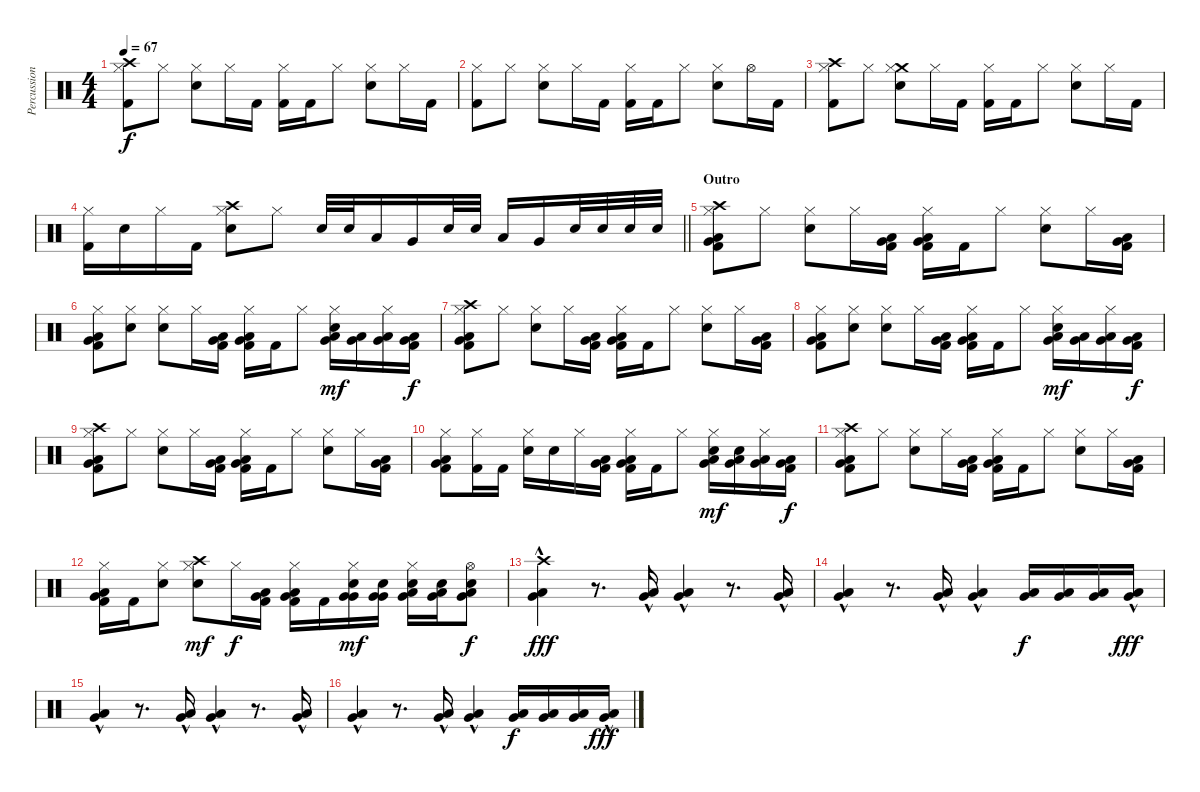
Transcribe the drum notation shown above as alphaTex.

\track ("Percussion" "Percussion") {instrument percussion}
\staff {score}
\articulation defaults
\ts (4 4)
\tempo 67
\clef neutral
\ks c
("Crash high (hit)" "Hi-Hat (closed)" "Kick (hit) 2").8{dy f} "Hi-Hat (closed)".8 ("Hi-Hat (closed)" "Snare (hit) 2").8 "Hi-Hat (closed)".16 "Kick (hit) 2".16 ("Hi-Hat (closed)" "Kick (hit) 2").16 "Kick (hit) 2".16 "Hi-Hat (closed)".8 ("Hi-Hat (closed)" "Snare (hit) 2").8 "Hi-Hat (closed)".16 "Kick (hit) 2".16 |
("Hi-Hat (closed)" "Kick (hit) 2").8 "Hi-Hat (closed)".8 ("Hi-Hat (closed)" "Snare (hit) 2").8 "Hi-Hat (closed)".16 "Kick (hit) 2".16 ("Hi-Hat (closed)" "Kick (hit) 2").16 "Kick (hit) 2".16 "Hi-Hat (closed)".8 ("Hi-Hat (closed)" "Snare (hit) 2").8 "Hi-Hat (open)".16 "Kick (hit) 2".16 |
("Crash high (hit)" "Hi-Hat (closed)" "Kick (hit) 2").8 "Hi-Hat (closed)".8 ("Crash medium (hit)" "Hi-Hat (closed)" "Snare (hit) 2").8 "Hi-Hat (closed)".16 "Kick (hit) 2".16 ("Hi-Hat (closed)" "Kick (hit) 2").16 "Kick (hit) 2".16 "Hi-Hat (closed)".8 ("Hi-Hat (closed)" "Snare (hit) 2").8 "Hi-Hat (closed)".16 "Kick (hit) 2".16 |
\barLineRight lightlight
("Hi-Hat (closed)" "Kick (hit) 2").16 "Snare (hit) 2".16 "Hi-Hat (closed)".16 "Kick (hit) 2".16 ("Crash high (hit)" "Hi-Hat (closed)" "Snare (hit) 2").8 "Hi-Hat (closed)".8 "Snare (hit) 2".32 "Snare (hit) 2".32 "Low Tom (hit)".16 "Very Low Tom (hit)".16 "Snare (hit) 2".32 "Snare (hit) 2".32 "Low Tom (hit)".16 "Very Low Tom (hit)".16 "Snare (hit) 2".32 "Snare (hit) 2".32 "Snare (hit) 2".32 "Snare (hit) 2".32 |
\section ("" "Outro")
("Crash high (hit)" "Hi-Hat (closed)" "Very Low Tom (hit)" "Low Floor Tom (hit)" "Kick (hit) 2").8 "Hi-Hat (closed)".8 ("Hi-Hat (closed)" "Snare (hit) 2").8 "Hi-Hat (closed)".16 ("Very Low Tom (hit)" "Low Floor Tom (hit)" "Kick (hit) 2").16 ("Hi-Hat (closed)" "Very Low Tom (hit)" "Low Floor Tom (hit)" "Kick (hit) 2").16 "Kick (hit) 2".16 "Hi-Hat (closed)".8 ("Hi-Hat (closed)" "Snare (hit) 2").8 "Hi-Hat (closed)".16 ("Very Low Tom (hit)" "Low Floor Tom (hit)" "Kick (hit) 2").16 |
("Hi-Hat (closed)" "Very Low Tom (hit)" "Low Floor Tom (hit)" "Kick (hit) 2").8 ("Hi-Hat (closed)" "Snare (hit) 2").8 ("Hi-Hat (closed)" "Snare (hit) 2").8 "Hi-Hat (closed)".16 ("Very Low Tom (hit)" "Low Floor Tom (hit)" "Kick (hit) 2").16 ("Hi-Hat (closed)" "Very Low Tom (hit)" "Low Floor Tom (hit)" "Kick (hit) 2").16 "Kick (hit) 2".16 "Hi-Hat (closed)".8 ("Hi-Hat (closed)" "Very Low Tom (hit)" "Low Floor Tom (hit)" "Snare (hit) 2").16{dy mf} ("Very Low Tom (hit)" "Low Floor Tom (hit)").16 ("Hi-Hat (closed)" "Very Low Tom (hit)" "Low Floor Tom (hit)").16 ("Very Low Tom (hit)" "Low Floor Tom (hit)" "Kick (hit) 2").16{dy f} |
("Crash high (hit)" "Hi-Hat (closed)" "Very Low Tom (hit)" "Low Floor Tom (hit)" "Kick (hit) 2").8 "Hi-Hat (closed)".8 ("Hi-Hat (closed)" "Snare (hit) 2").8 "Hi-Hat (closed)".16 ("Very Low Tom (hit)" "Low Floor Tom (hit)" "Kick (hit) 2").16 ("Hi-Hat (closed)" "Very Low Tom (hit)" "Low Floor Tom (hit)" "Kick (hit) 2").16 "Kick (hit) 2".16 "Hi-Hat (closed)".8 ("Hi-Hat (closed)" "Snare (hit) 2").8 "Hi-Hat (closed)".16 ("Very Low Tom (hit)" "Low Floor Tom (hit)" "Kick (hit) 2").16 |
("Hi-Hat (closed)" "Very Low Tom (hit)" "Low Floor Tom (hit)" "Kick (hit) 2").8 ("Hi-Hat (closed)" "Snare (hit) 2").8 ("Hi-Hat (closed)" "Snare (hit) 2").8 "Hi-Hat (closed)".16 ("Very Low Tom (hit)" "Low Floor Tom (hit)" "Kick (hit) 2").16 ("Hi-Hat (closed)" "Very Low Tom (hit)" "Low Floor Tom (hit)" "Kick (hit) 2").16 "Kick (hit) 2".16 "Hi-Hat (closed)".8 ("Hi-Hat (closed)" "Very Low Tom (hit)" "Low Floor Tom (hit)" "Snare (hit) 2").16{dy mf} ("Very Low Tom (hit)" "Low Floor Tom (hit)").16 ("Hi-Hat (closed)" "Very Low Tom (hit)" "Low Floor Tom (hit)").16 ("Very Low Tom (hit)" "Low Floor Tom (hit)" "Kick (hit) 2").16{dy f} |
("Crash high (hit)" "Hi-Hat (closed)" "Very Low Tom (hit)" "Low Floor Tom (hit)" "Kick (hit) 2").8 "Hi-Hat (closed)".8 ("Hi-Hat (closed)" "Snare (hit) 2").8 "Hi-Hat (closed)".16 ("Very Low Tom (hit)" "Low Floor Tom (hit)" "Kick (hit) 2").16 ("Hi-Hat (closed)" "Very Low Tom (hit)" "Low Floor Tom (hit)" "Kick (hit) 2").16 "Kick (hit) 2".16 "Hi-Hat (closed)".8 ("Hi-Hat (closed)" "Snare (hit) 2").8 "Hi-Hat (closed)".16 ("Very Low Tom (hit)" "Low Floor Tom (hit)" "Kick (hit) 2").16 |
("Hi-Hat (closed)" "Very Low Tom (hit)" "Low Floor Tom (hit)" "Kick (hit) 2").8 ("Hi-Hat (closed)" "Kick (hit) 2").16 "Kick (hit) 2".16 ("Hi-Hat (closed)" "Snare (hit) 2").16 "Snare (hit) 2".16 "Hi-Hat (closed)".16 ("Very Low Tom (hit)" "Low Floor Tom (hit)" "Kick (hit) 2").16 ("Hi-Hat (closed)" "Very Low Tom (hit)" "Low Floor Tom (hit)" "Kick (hit) 2").16 "Kick (hit) 2".16 "Hi-Hat (closed)".8 ("Hi-Hat (closed)" "Very Low Tom (hit)" "Low Floor Tom (hit)" "Snare (hit) 2").16{dy mf} ("Very Low Tom (hit)" "Low Floor Tom (hit)" "Snare (hit) 2").16 ("Hi-Hat (closed)" "Very Low Tom (hit)" "Low Floor Tom (hit)").16 ("Very Low Tom (hit)" "Low Floor Tom (hit)" "Kick (hit) 2").16{dy f} |
("Crash high (hit)" "Hi-Hat (closed)" "Very Low Tom (hit)" "Low Floor Tom (hit)" "Kick (hit) 2").8 "Hi-Hat (closed)".8 ("Hi-Hat (closed)" "Snare (hit) 2").8 "Hi-Hat (closed)".16 ("Very Low Tom (hit)" "Low Floor Tom (hit)" "Kick (hit) 2").16 ("Hi-Hat (closed)" "Very Low Tom (hit)" "Low Floor Tom (hit)" "Kick (hit) 2").16 "Kick (hit) 2".16 "Hi-Hat (closed)".8 ("Hi-Hat (closed)" "Snare (hit) 2").8 "Hi-Hat (closed)".16 ("Very Low Tom (hit)" "Low Floor Tom (hit)" "Kick (hit) 2").16 |
("Hi-Hat (closed)" "Very Low Tom (hit)" "Low Floor Tom (hit)" "Kick (hit) 2").16 "Kick (hit) 2".16 ("Hi-Hat (closed)" "Snare (hit) 2").8 ("Crash high (hit)" "Hi-Hat (closed)" "Snare (hit) 2").8{dy mf} "Hi-Hat (closed)".16{dy f} ("Very Low Tom (hit)" "Low Floor Tom (hit)" "Kick (hit) 2").16 ("Hi-Hat (closed)" "Very Low Tom (hit)" "Low Floor Tom (hit)" "Kick (hit) 2").16 "Kick (hit) 2".16 ("Hi-Hat (closed)" "Very Low Tom (hit)" "Very Low Tom (hit)" "Snare (hit) 2").16{dy mf} ("Very Low Tom (hit)" "Very Low Tom (hit)" "Snare (hit) 2").16 ("Hi-Hat (closed)" "Very Low Tom (hit)" "Low Floor Tom (hit)" "Snare (hit) 2").16 ("Very Low Tom (hit)" "Low Floor Tom (hit)" "Snare (hit) 2").16 ("Hi-Hat (open)" "Very Low Tom (hit)" "Low Floor Tom (hit)" "Snare (hit) 2").8{dy f} |
("Crash high (hit)" "Very Low Tom (hit)"{hac} "Low Floor Tom (hit)"{hac}).4{dy fff} r.8{d} ("Very Low Tom (hit)"{hac} "Low Floor Tom (hit)"{hac}).16 ("Very Low Tom (hit)"{hac} "Low Floor Tom (hit)"{hac}).4 r.8{d} ("Very Low Tom (hit)"{hac} "Low Floor Tom (hit)"{hac}).16 |
("Very Low Tom (hit)"{hac} "Low Floor Tom (hit)"{hac}).4 r.8{d} ("Very Low Tom (hit)"{hac} "Low Floor Tom (hit)"{hac}).16 ("Very Low Tom (hit)"{hac} "Low Floor Tom (hit)"{hac}).4 ("Very Low Tom (hit)" "Low Floor Tom (hit)").16{dy f} ("Very Low Tom (hit)" "Low Floor Tom (hit)").16 ("Very Low Tom (hit)" "Low Floor Tom (hit)").16 ("Very Low Tom (hit)"{hac} "Low Floor Tom (hit)"{hac}).16{dy fff} |
("Very Low Tom (hit)"{hac} "Low Floor Tom (hit)"{hac}).4 r.8{d} ("Very Low Tom (hit)"{hac} "Low Floor Tom (hit)"{hac}).16 ("Very Low Tom (hit)"{hac} "Low Floor Tom (hit)"{hac}).4 r.8{d} ("Very Low Tom (hit)"{hac} "Low Floor Tom (hit)"{hac}).16 |
("Very Low Tom (hit)"{hac} "Low Floor Tom (hit)"{hac}).4 r.8{d} ("Very Low Tom (hit)"{hac} "Low Floor Tom (hit)"{hac}).16 ("Very Low Tom (hit)"{hac} "Low Floor Tom (hit)"{hac}).4 ("Very Low Tom (hit)" "Low Floor Tom (hit)").16{dy f} ("Very Low Tom (hit)" "Low Floor Tom (hit)").16 ("Very Low Tom (hit)" "Low Floor Tom (hit)").16 ("Very Low Tom (hit)"{hac} "Low Floor Tom (hit)"{hac}).16{dy fff}
